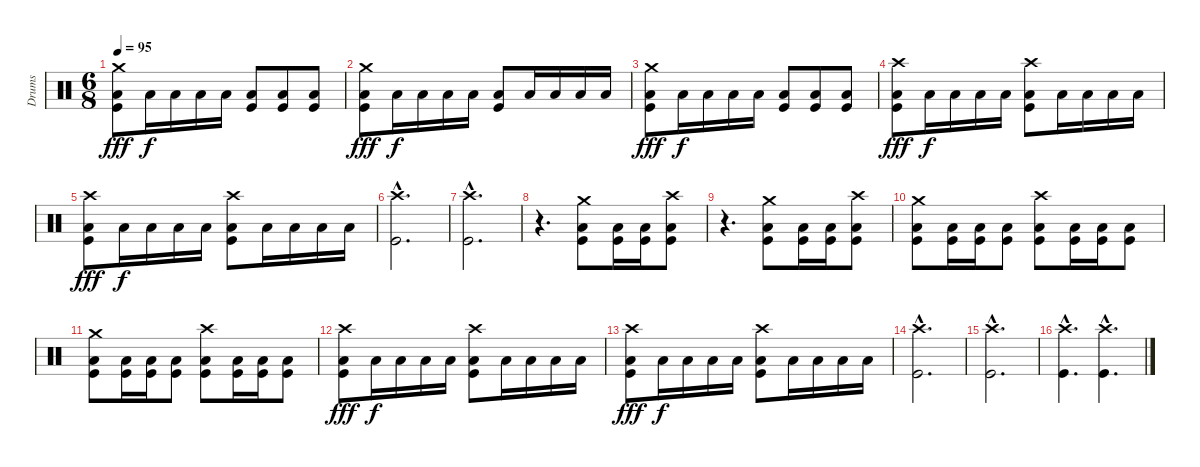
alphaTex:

\track ("Drums" "Drums") {instrument percussion}
\staff {score}
\articulation defaults
\ts (6 8)
\tempo 95
\clef neutral
\ks c
("Crash medium (hit)" "Low Tom (hit)" "Kick (hit)").8{dy fff} "Low Tom (hit)".16{dy f} "Low Tom (hit)".16 "Low Tom (hit)".16 "Low Tom (hit)".16 ("Low Tom (hit)" "Kick (hit)").8 ("Low Tom (hit)" "Kick (hit)").8 ("Low Tom (hit)" "Kick (hit)").8 |
("Crash medium (hit)" "Low Tom (hit)" "Kick (hit)").8{dy fff} "Low Tom (hit)".16{dy f} "Low Tom (hit)".16 "Low Tom (hit)".16 "Low Tom (hit)".16 ("Low Tom (hit)" "Kick (hit)").8 "Low Tom (hit)".16 "Low Tom (hit)".16 "Low Tom (hit)".16 "Low Tom (hit)".16 |
("Crash medium (hit)" "Low Tom (hit)" "Kick (hit)").8{dy fff} "Low Tom (hit)".16{dy f} "Low Tom (hit)".16 "Low Tom (hit)".16 "Low Tom (hit)".16 ("Low Tom (hit)" "Kick (hit)").8 ("Low Tom (hit)" "Kick (hit)").8 ("Low Tom (hit)" "Kick (hit)").8 |
("Crash high (hit)" "Low Tom (hit)" "Kick (hit)").8{dy fff} "Low Tom (hit)".16{dy f} "Low Tom (hit)".16 "Low Tom (hit)".16 "Low Tom (hit)".16 ("Crash high (hit)" "Low Tom (hit)" "Kick (hit)").8 "Low Tom (hit)".16 "Low Tom (hit)".16 "Low Tom (hit)".16 "Low Tom (hit)".16 |
("Crash high (hit)" "Low Tom (hit)" "Kick (hit)").8{dy fff} "Low Tom (hit)".16{dy f} "Low Tom (hit)".16 "Low Tom (hit)".16 "Low Tom (hit)".16 ("Crash high (hit)" "Low Tom (hit)" "Kick (hit)").8 "Low Tom (hit)".16 "Low Tom (hit)".16 "Low Tom (hit)".16 "Low Tom (hit)".16 |
("Crash high (hit)"{hac} "Kick (hit)"{hac}).2{d} |
("Crash high (hit)"{hac} "Kick (hit)"{hac}).2{d} |
r.4{d} ("Crash medium (hit)" "Low Tom (hit)" "Kick (hit)").8 ("Low Tom (hit)" "Kick (hit)").16 ("Low Tom (hit)" "Kick (hit)").16 ("Crash high (hit)" "Low Tom (hit)" "Kick (hit)").8 |
r.4{d} ("Crash medium (hit)" "Low Tom (hit)" "Kick (hit)").8 ("Low Tom (hit)" "Kick (hit)").16 ("Low Tom (hit)" "Kick (hit)").16 ("Crash high (hit)" "Low Tom (hit)" "Kick (hit)").8 |
("Crash medium (hit)" "Low Tom (hit)" "Kick (hit)").8 ("Low Tom (hit)" "Kick (hit)").16 ("Low Tom (hit)" "Kick (hit)").16 ("Low Tom (hit)" "Kick (hit)").8 ("Crash high (hit)" "Low Tom (hit)" "Kick (hit)").8 ("Low Tom (hit)" "Kick (hit)").16 ("Low Tom (hit)" "Kick (hit)").16 ("Low Tom (hit)" "Kick (hit)").8 |
("Crash medium (hit)" "Low Tom (hit)" "Kick (hit)").8 ("Low Tom (hit)" "Kick (hit)").16 ("Low Tom (hit)" "Kick (hit)").16 ("Low Tom (hit)" "Kick (hit)").8 ("Crash high (hit)" "Low Tom (hit)" "Kick (hit)").8 ("Low Tom (hit)" "Kick (hit)").16 ("Low Tom (hit)" "Kick (hit)").16 ("Low Tom (hit)" "Kick (hit)").8 |
("Crash high (hit)" "Low Tom (hit)" "Kick (hit)").8{dy fff} "Low Tom (hit)".16{dy f} "Low Tom (hit)".16 "Low Tom (hit)".16 "Low Tom (hit)".16 ("Crash high (hit)" "Low Tom (hit)" "Kick (hit)").8 "Low Tom (hit)".16 "Low Tom (hit)".16 "Low Tom (hit)".16 "Low Tom (hit)".16 |
("Crash high (hit)" "Low Tom (hit)" "Kick (hit)").8{dy fff} "Low Tom (hit)".16{dy f} "Low Tom (hit)".16 "Low Tom (hit)".16 "Low Tom (hit)".16 ("Crash high (hit)" "Low Tom (hit)" "Kick (hit)").8 "Low Tom (hit)".16 "Low Tom (hit)".16 "Low Tom (hit)".16 "Low Tom (hit)".16 |
("Crash high (hit)"{hac} "Kick (hit)"{hac}).2{d} |
("Crash high (hit)"{hac} "Kick (hit)"{hac}).2{d} |
("Crash high (hit)"{hac} "Kick (hit)"{hac}).4{d} ("Crash high (hit)"{hac} "Kick (hit)"{hac}).4{d}
